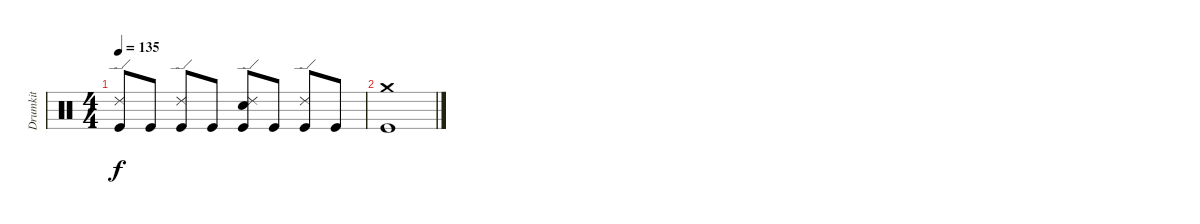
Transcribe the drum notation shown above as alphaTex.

\track ("Drumkit" "Drumkit") {instrument percussion}
\staff {score}
\articulation defaults
\ts (4 4)
\tempo 135
\clef neutral
\ks c
("Ride (edge) 2" "Kick (hit)").8{dy f} "Kick (hit)".8 ("Kick (hit)" "Ride (edge) 2").8 "Kick (hit)".8 ("Kick (hit)" "Ride (edge) 2" "Snare (hit) 2").8 "Kick (hit)".8 ("Kick (hit)" "Ride (edge) 2").8 "Kick (hit)".8 |
("Kick (hit)" "Crash medium (hit)").1
